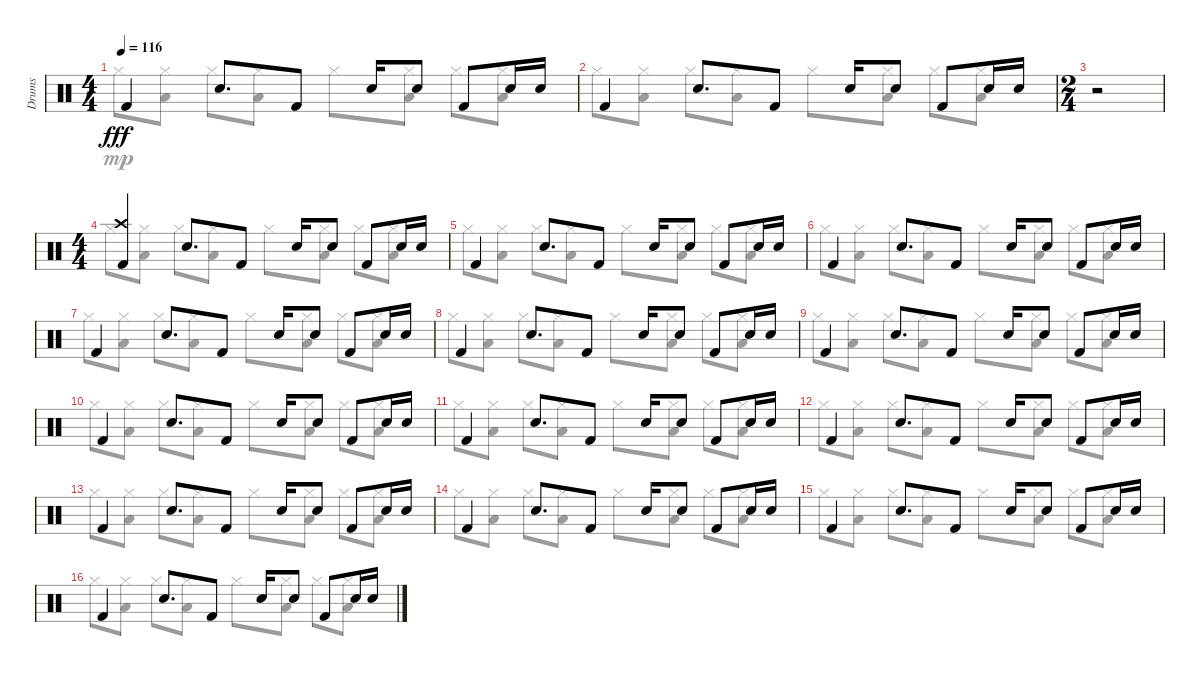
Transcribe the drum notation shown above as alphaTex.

\track ("Drums" "Drums") {instrument percussion}
\staff {score}
\articulation defaults
\voice
\ts (4 4)
\tempo 116
\clef neutral
\ks c "Kick (hit) 2".4{dy fff} "Electric Snare (hit)".8{d} "Kick (hit) 2".8 "Electric Snare (hit)".16 "Electric Snare (hit)".8 "Kick (hit) 2".8 "Electric Snare (hit)".16 "Electric Snare (hit)".16
|
"Kick (hit) 2".4 "Electric Snare (hit)".8{d} "Kick (hit) 2".8 "Electric Snare (hit)".16 "Electric Snare (hit)".8 "Kick (hit) 2".8 "Electric Snare (hit)".16 "Electric Snare (hit)".16 |
\ts (2 4)
r.2 |
\ts (4 4)
("Crash high (hit)" "Kick (hit) 2").4 "Electric Snare (hit)".8{d} "Kick (hit) 2".8 "Electric Snare (hit)".16 "Electric Snare (hit)".8 "Kick (hit) 2".8 "Electric Snare (hit)".16 "Electric Snare (hit)".16 |
"Kick (hit) 2".4 "Electric Snare (hit)".8{d} "Kick (hit) 2".8 "Electric Snare (hit)".16 "Electric Snare (hit)".8 "Kick (hit) 2".8 "Electric Snare (hit)".16 "Electric Snare (hit)".16 |
"Kick (hit) 2".4 "Electric Snare (hit)".8{d} "Kick (hit) 2".8 "Electric Snare (hit)".16 "Electric Snare (hit)".8 "Kick (hit) 2".8 "Electric Snare (hit)".16 "Electric Snare (hit)".16 |
"Kick (hit) 2".4 "Electric Snare (hit)".8{d} "Kick (hit) 2".8 "Electric Snare (hit)".16 "Electric Snare (hit)".8 "Kick (hit) 2".8 "Electric Snare (hit)".16 "Electric Snare (hit)".16 |
"Kick (hit) 2".4 "Electric Snare (hit)".8{d} "Kick (hit) 2".8 "Electric Snare (hit)".16 "Electric Snare (hit)".8 "Kick (hit) 2".8 "Electric Snare (hit)".16 "Electric Snare (hit)".16 |
"Kick (hit) 2".4 "Electric Snare (hit)".8{d} "Kick (hit) 2".8 "Electric Snare (hit)".16 "Electric Snare (hit)".8 "Kick (hit) 2".8 "Electric Snare (hit)".16 "Electric Snare (hit)".16 |
"Kick (hit) 2".4 "Electric Snare (hit)".8{d} "Kick (hit) 2".8 "Electric Snare (hit)".16 "Electric Snare (hit)".8 "Kick (hit) 2".8 "Electric Snare (hit)".16 "Electric Snare (hit)".16 |
"Kick (hit) 2".4 "Electric Snare (hit)".8{d} "Kick (hit) 2".8 "Electric Snare (hit)".16 "Electric Snare (hit)".8 "Kick (hit) 2".8 "Electric Snare (hit)".16 "Electric Snare (hit)".16 |
"Kick (hit) 2".4 "Electric Snare (hit)".8{d} "Kick (hit) 2".8 "Electric Snare (hit)".16 "Electric Snare (hit)".8 "Kick (hit) 2".8 "Electric Snare (hit)".16 "Electric Snare (hit)".16 |
"Kick (hit) 2".4 "Electric Snare (hit)".8{d} "Kick (hit) 2".8 "Electric Snare (hit)".16 "Electric Snare (hit)".8 "Kick (hit) 2".8 "Electric Snare (hit)".16 "Electric Snare (hit)".16 |
"Kick (hit) 2".4 "Electric Snare (hit)".8{d} "Kick (hit) 2".8 "Electric Snare (hit)".16 "Electric Snare (hit)".8 "Kick (hit) 2".8 "Electric Snare (hit)".16 "Electric Snare (hit)".16 |
"Kick (hit) 2".4 "Electric Snare (hit)".8{d} "Kick (hit) 2".8 "Electric Snare (hit)".16 "Electric Snare (hit)".8 "Kick (hit) 2".8 "Electric Snare (hit)".16 "Electric Snare (hit)".16 |
"Kick (hit) 2".4 "Electric Snare (hit)".8{d} "Kick (hit) 2".8 "Electric Snare (hit)".16 "Electric Snare (hit)".8 "Kick (hit) 2".8 "Electric Snare (hit)".16 "Electric Snare (hit)".16
\voice
\clef neutral
\ottava regular
\simile none
\ks c "Hi-Hat (closed)".8{dy mp}
("Hi-Hat (closed)" "Low Floor Tom (hit)").8 "Hi-Hat (closed)".8 ("Hi-Hat (closed)" "Low Floor Tom (hit)").8 "Hi-Hat (closed)".8 ("Hi-Hat (closed)" "Low Floor Tom (hit)").8 "Hi-Hat (closed)".8 ("Hi-Hat (closed)" "Low Floor Tom (hit)").8 |
"Hi-Hat (closed)".8 ("Hi-Hat (closed)" "Low Floor Tom (hit)").8 "Hi-Hat (closed)".8 ("Hi-Hat (closed)" "Low Floor Tom (hit)").8 "Hi-Hat (closed)".8 ("Hi-Hat (closed)" "Low Floor Tom (hit)").8 "Hi-Hat (closed)".8 ("Hi-Hat (closed)" "Low Floor Tom (hit)").8 |
|
"Hi-Hat (closed)".8 ("Hi-Hat (closed)" "Low Floor Tom (hit)").8 "Hi-Hat (closed)".8 ("Hi-Hat (closed)" "Low Floor Tom (hit)").8 "Hi-Hat (closed)".8 ("Hi-Hat (closed)" "Low Floor Tom (hit)").8 "Hi-Hat (closed)".8 ("Hi-Hat (closed)" "Low Floor Tom (hit)").8 |
"Hi-Hat (closed)".8 ("Hi-Hat (closed)" "Low Floor Tom (hit)").8 "Hi-Hat (closed)".8 ("Hi-Hat (closed)" "Low Floor Tom (hit)").8 "Hi-Hat (closed)".8 ("Hi-Hat (closed)" "Low Floor Tom (hit)").8 "Hi-Hat (closed)".8 ("Hi-Hat (closed)" "Low Floor Tom (hit)").8 |
"Hi-Hat (closed)".8 ("Hi-Hat (closed)" "Low Floor Tom (hit)").8 "Hi-Hat (closed)".8 ("Hi-Hat (closed)" "Low Floor Tom (hit)").8 "Hi-Hat (closed)".8 ("Hi-Hat (closed)" "Low Floor Tom (hit)").8 "Hi-Hat (closed)".8 ("Hi-Hat (closed)" "Low Floor Tom (hit)").8 |
"Hi-Hat (closed)".8 ("Hi-Hat (closed)" "Low Floor Tom (hit)").8 "Hi-Hat (closed)".8 ("Hi-Hat (closed)" "Low Floor Tom (hit)").8 "Hi-Hat (closed)".8 ("Hi-Hat (closed)" "Low Floor Tom (hit)").8 "Hi-Hat (closed)".8 ("Hi-Hat (closed)" "Low Floor Tom (hit)").8 |
"Hi-Hat (closed)".8 ("Hi-Hat (closed)" "Low Floor Tom (hit)").8 "Hi-Hat (closed)".8 ("Hi-Hat (closed)" "Low Floor Tom (hit)").8 "Hi-Hat (closed)".8 ("Hi-Hat (closed)" "Low Floor Tom (hit)").8 "Hi-Hat (closed)".8 ("Hi-Hat (closed)" "Low Floor Tom (hit)").8 |
"Hi-Hat (closed)".8 ("Hi-Hat (closed)" "Low Floor Tom (hit)").8 "Hi-Hat (closed)".8 ("Hi-Hat (closed)" "Low Floor Tom (hit)").8 "Hi-Hat (closed)".8 ("Hi-Hat (closed)" "Low Floor Tom (hit)").8 "Hi-Hat (closed)".8 ("Hi-Hat (closed)" "Low Floor Tom (hit)").8 |
"Hi-Hat (closed)".8 ("Hi-Hat (closed)" "Low Floor Tom (hit)").8 "Hi-Hat (closed)".8 ("Hi-Hat (closed)" "Low Floor Tom (hit)").8 "Hi-Hat (closed)".8 ("Hi-Hat (closed)" "Low Floor Tom (hit)").8 "Hi-Hat (closed)".8 ("Hi-Hat (closed)" "Low Floor Tom (hit)").8 |
"Hi-Hat (closed)".8 ("Hi-Hat (closed)" "Low Floor Tom (hit)").8 "Hi-Hat (closed)".8 ("Hi-Hat (closed)" "Low Floor Tom (hit)").8 "Hi-Hat (closed)".8 ("Hi-Hat (closed)" "Low Floor Tom (hit)").8 "Hi-Hat (closed)".8 ("Hi-Hat (closed)" "Low Floor Tom (hit)").8 |
"Hi-Hat (closed)".8 ("Hi-Hat (closed)" "Low Floor Tom (hit)").8 "Hi-Hat (closed)".8 ("Hi-Hat (closed)" "Low Floor Tom (hit)").8 "Hi-Hat (closed)".8 ("Hi-Hat (closed)" "Low Floor Tom (hit)").8 "Hi-Hat (closed)".8 ("Hi-Hat (closed)" "Low Floor Tom (hit)").8 |
"Hi-Hat (closed)".8 ("Hi-Hat (closed)" "Low Floor Tom (hit)").8 "Hi-Hat (closed)".8 ("Hi-Hat (closed)" "Low Floor Tom (hit)").8 "Hi-Hat (closed)".8 ("Hi-Hat (closed)" "Low Floor Tom (hit)").8 "Hi-Hat (closed)".8 ("Hi-Hat (closed)" "Low Floor Tom (hit)").8 |
"Hi-Hat (closed)".8 ("Hi-Hat (closed)" "Low Floor Tom (hit)").8 "Hi-Hat (closed)".8 ("Hi-Hat (closed)" "Low Floor Tom (hit)").8 "Hi-Hat (closed)".8 ("Hi-Hat (closed)" "Low Floor Tom (hit)").8 "Hi-Hat (closed)".8 ("Hi-Hat (closed)" "Low Floor Tom (hit)").8 |
"Hi-Hat (closed)".8 ("Hi-Hat (closed)" "Low Floor Tom (hit)").8 "Hi-Hat (closed)".8 ("Hi-Hat (closed)" "Low Floor Tom (hit)").8 "Hi-Hat (closed)".8 ("Hi-Hat (closed)" "Low Floor Tom (hit)").8 "Hi-Hat (closed)".8 ("Hi-Hat (closed)" "Low Floor Tom (hit)").8 |
"Hi-Hat (closed)".8 ("Hi-Hat (closed)" "Low Floor Tom (hit)").8 "Hi-Hat (closed)".8 ("Hi-Hat (closed)" "Low Floor Tom (hit)").8 "Hi-Hat (closed)".8 ("Hi-Hat (closed)" "Low Floor Tom (hit)").8 "Hi-Hat (closed)".8 ("Hi-Hat (closed)" "Low Floor Tom (hit)").8
